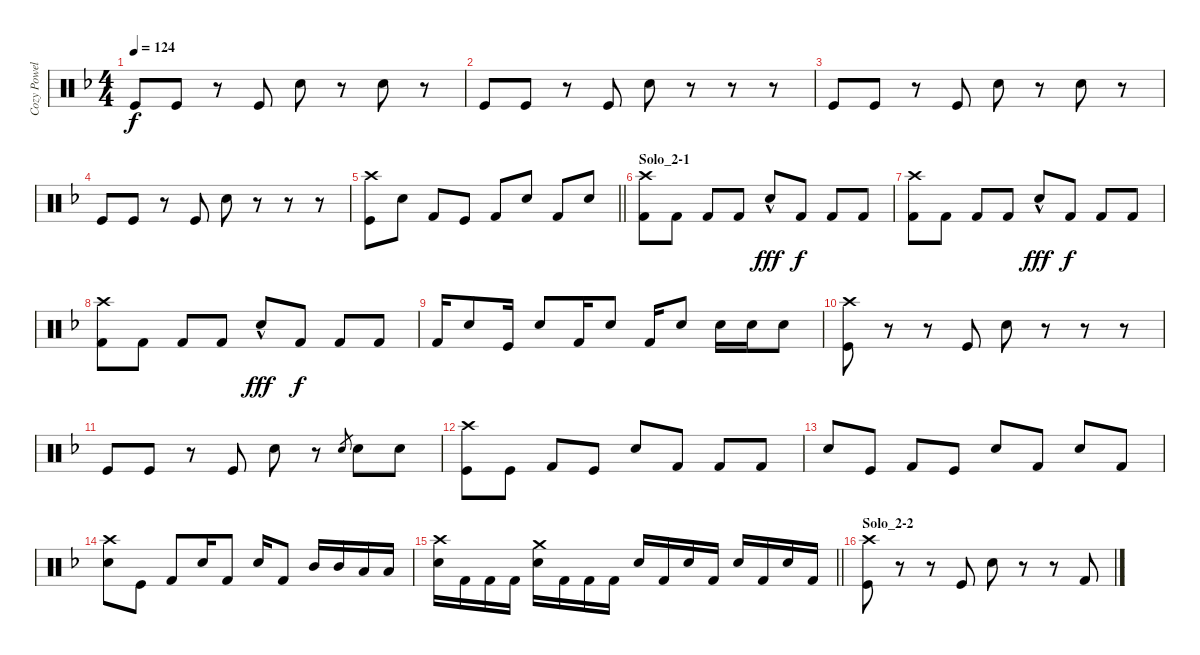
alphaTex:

\track ("Cozy Powell" "Cozy Powel") {instrument percussion}
\staff {score}
\articulation defaults
\ts (4 4)
\tempo 124
\clef neutral
\ks f "Kick (hit)".8{dy f} "Kick (hit)".8
r.8 "Kick (hit)".8 "Snare (hit) 2".8 r.8 "Snare (hit) 2".8 r.8 |
"Kick (hit)".8 "Kick (hit)".8 r.8 "Kick (hit)".8 "Snare (hit) 2".8 r.8 r.8 r.8 |
"Kick (hit)".8 "Kick (hit)".8 r.8 "Kick (hit)".8 "Snare (hit) 2".8 r.8 "Snare (hit) 2".8 r.8 |
"Kick (hit)".8 "Kick (hit)".8 r.8 "Kick (hit)".8 "Snare (hit) 2".8 r.8 r.8 r.8 |
\barLineRight lightlight
("Kick (hit)" "Crash high (hit)").8 "Snare (hit) 2".8 "Kick (hit) 2".8 "Kick (hit)".8 "Kick (hit) 2".8 "Snare (hit) 2".8 "Kick (hit) 2".8 "Snare (hit) 2".8 |
\section ("" "Solo_2-1")
("Kick (hit) 2" "Crash high (hit)").8 "Kick (hit) 2".8 "Kick (hit) 2".8 "Kick (hit) 2".8 "Snare (hit) 2"{hac}.8{dy fff} "Kick (hit) 2".8{dy f} "Kick (hit) 2".8 "Kick (hit) 2".8 |
("Kick (hit) 2" "Crash high (hit)").8 "Kick (hit) 2".8 "Kick (hit) 2".8 "Kick (hit) 2".8 "Snare (hit) 2"{hac}.8{dy fff} "Kick (hit) 2".8{dy f} "Kick (hit) 2".8 "Kick (hit) 2".8 |
("Kick (hit) 2" "Crash high (hit)").8 "Kick (hit) 2".8 "Kick (hit) 2".8 "Kick (hit) 2".8 "Snare (hit) 2"{hac}.8{dy fff} "Kick (hit) 2".8{dy f} "Kick (hit) 2".8 "Kick (hit) 2".8 |
"Kick (hit) 2".16 "Snare (hit) 2".8 "Kick (hit)".16 "Snare (hit) 2".8 "Kick (hit) 2".16 "Snare (hit) 2".8 "Kick (hit) 2".16 "Snare (hit) 2".8 "Snare (hit) 2".16 "Snare (hit) 2".16 "Snare (hit) 2".8 |
("Kick (hit)" "Crash high (hit)").8 r.8 r.8 "Kick (hit)".8 "Snare (hit) 2".8 r.8 r.8 r.8 |
"Kick (hit)".8 "Kick (hit)".8 r.8 "Kick (hit)".8 "Snare (hit) 2".8 r.8 "Snare (hit) 2".8{gr} "Snare (hit) 2".8 "Snare (hit) 2".8 |
("Kick (hit)" "Crash high (hit)").8 "Kick (hit)".8 "Kick (hit) 2".8 "Kick (hit)".8 "Snare (hit) 2".8 "Kick (hit) 2".8 "Kick (hit) 2".8 "Kick (hit) 2".8 |
"Snare (hit) 2".8 "Kick (hit)".8 "Kick (hit) 2".8 "Kick (hit)".8 "Snare (hit) 2".8 "Kick (hit) 2".8 "Snare (hit) 2".8 "Kick (hit) 2".8 |
("Snare (hit) 2" "Crash high (hit)").8 "Kick (hit)".8 "Kick (hit) 2".8 "Snare (hit) 2".16 "Kick (hit) 2".8 "Snare (hit) 2".16 "Kick (hit) 2".8 "Mid Tom (hit)".16 "Mid Tom (hit)".16 "Low Tom (hit)".16 "Low Tom (hit)".16 |
\barLineRight lightlight
("Snare (hit) 2" "Crash high (hit)").16 "Kick (hit) 2".16 "Kick (hit) 2".16 "Kick (hit) 2".16 ("Snare (hit) 2" "Crash medium (hit)").16 "Kick (hit) 2".16 "Kick (hit) 2".16 "Kick (hit) 2".16 "Snare (hit) 2".16 "Kick (hit) 2".16 "Snare (hit) 2".16 "Kick (hit) 2".16 "Snare (hit) 2".16 "Kick (hit) 2".16 "Snare (hit) 2".16 "Kick (hit) 2".16 |
\section ("" "Solo_2-2")
("Kick (hit)" "Crash high (hit)").8 r.8 r.8 "Kick (hit)".8 "Snare (hit) 2".8 r.8 r.8 "Kick (hit) 2".8
